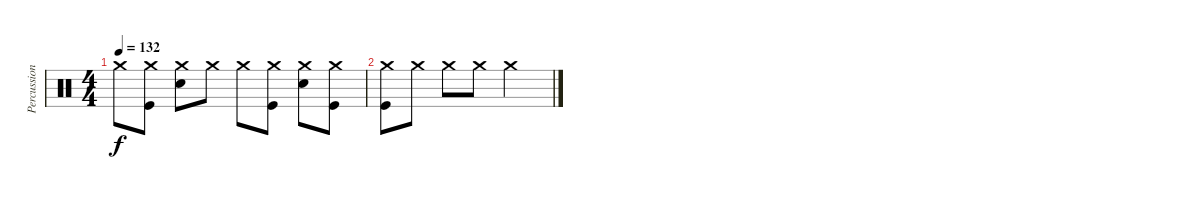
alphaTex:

\track ("Percussion" "Percussion") {instrument percussion}
\staff {score}
\articulation defaults
\ts (4 4)
\tempo 132
\clef neutral
\ks c "Crash medium (hit)".8{dy f}
("Crash medium (hit)" "Kick (hit)").8 ("Crash medium (hit)" "Snare (hit) 2").8 "Crash medium (hit)".8 "Crash medium (hit)".8 ("Crash medium (hit)" "Kick (hit)").8 ("Crash medium (hit)" "Snare (hit) 2").8 ("Crash medium (hit)" "Kick (hit)").8 |
("Crash medium (hit)" "Kick (hit)").8 "Crash medium (hit)".8 "Crash medium (hit)".8 "Crash medium (hit)".8 "Crash medium (hit)".2
